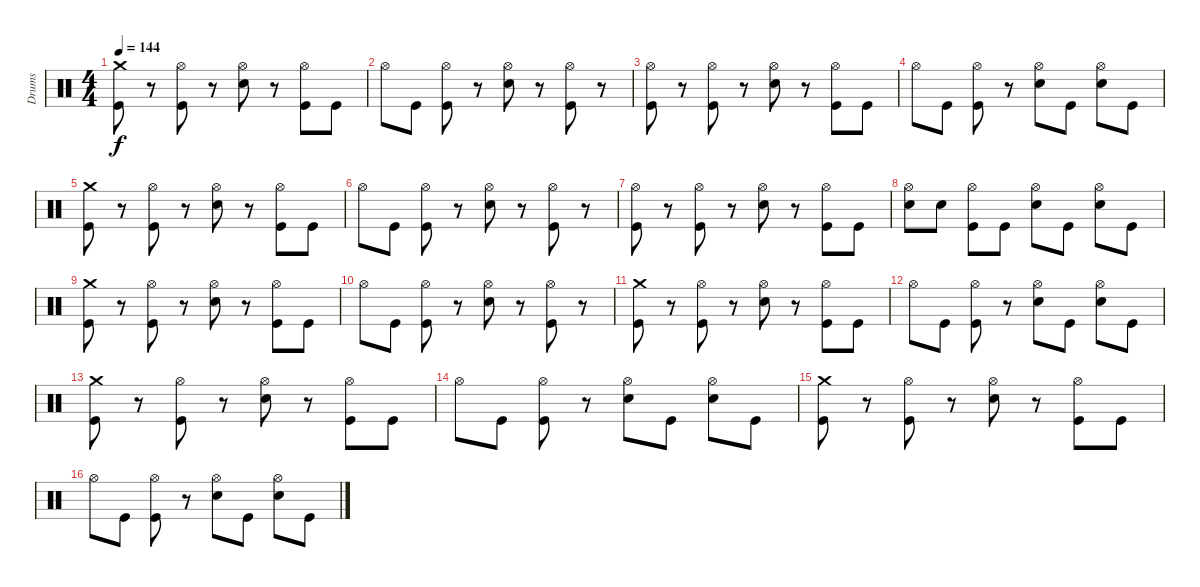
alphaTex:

\track ("Drums" "Drums") {instrument percussion}
\staff {score}
\articulation defaults
\ts (4 4)
\tempo 144
\clef neutral
\ks c
("Crash medium (hit)" "Kick (hit)").8{dy f} r.8 ("Hi-Hat (open)" "Kick (hit)").8 r.8 ("Hi-Hat (open)" "Snare (hit) 2").8 r.8 ("Hi-Hat (open)" "Kick (hit)").8 "Kick (hit)".8 |
"Hi-Hat (open)".8 "Kick (hit)".8 ("Hi-Hat (open)" "Kick (hit)").8 r.8 ("Hi-Hat (open)" "Snare (hit) 2").8 r.8 ("Hi-Hat (open)" "Kick (hit)").8 r.8 |
("Hi-Hat (open)" "Kick (hit)").8 r.8 ("Hi-Hat (open)" "Kick (hit)").8 r.8 ("Hi-Hat (open)" "Snare (hit) 2").8 r.8 ("Hi-Hat (open)" "Kick (hit)").8 "Kick (hit)".8 |
"Hi-Hat (open)".8 "Kick (hit)".8 ("Hi-Hat (open)" "Kick (hit)").8 r.8 ("Hi-Hat (open)" "Snare (hit) 2").8 "Kick (hit)".8 ("Hi-Hat (open)" "Snare (hit) 2").8 "Kick (hit)".8 |
("Crash medium (hit)" "Kick (hit)").8 r.8 ("Hi-Hat (open)" "Kick (hit)").8 r.8 ("Hi-Hat (open)" "Snare (hit) 2").8 r.8 ("Hi-Hat (open)" "Kick (hit)").8 "Kick (hit)".8 |
"Hi-Hat (open)".8 "Kick (hit)".8 ("Hi-Hat (open)" "Kick (hit)").8 r.8 ("Hi-Hat (open)" "Snare (hit) 2").8 r.8 ("Hi-Hat (open)" "Kick (hit)").8 r.8 |
("Hi-Hat (open)" "Kick (hit)").8 r.8 ("Hi-Hat (open)" "Kick (hit)").8 r.8 ("Hi-Hat (open)" "Snare (hit) 2").8 r.8 ("Hi-Hat (open)" "Kick (hit)").8 "Kick (hit)".8 |
("Hi-Hat (open)" "Snare (hit) 2").8 "Snare (hit) 2".8 ("Hi-Hat (open)" "Kick (hit)").8 "Kick (hit)".8 ("Hi-Hat (open)" "Snare (hit) 2").8 "Kick (hit)".8 ("Hi-Hat (open)" "Snare (hit) 2").8 "Kick (hit)".8 |
("Crash medium (hit)" "Kick (hit)").8 r.8 ("Hi-Hat (open)" "Kick (hit)").8 r.8 ("Hi-Hat (open)" "Snare (hit) 2").8 r.8 ("Hi-Hat (open)" "Kick (hit)").8 "Kick (hit)".8 |
"Hi-Hat (open)".8 "Kick (hit)".8 ("Hi-Hat (open)" "Kick (hit)").8 r.8 ("Hi-Hat (open)" "Snare (hit) 2").8 r.8 ("Hi-Hat (open)" "Kick (hit)").8 r.8 |
("Crash medium (hit)" "Kick (hit)").8 r.8 ("Hi-Hat (open)" "Kick (hit)").8 r.8 ("Hi-Hat (open)" "Snare (hit) 2").8 r.8 ("Hi-Hat (open)" "Kick (hit)").8 "Kick (hit)".8 |
"Hi-Hat (open)".8 "Kick (hit)".8 ("Hi-Hat (open)" "Kick (hit)").8 r.8 ("Hi-Hat (open)" "Snare (hit) 2").8 "Kick (hit)".8 ("Hi-Hat (open)" "Snare (hit) 2").8 "Kick (hit)".8 |
("Crash medium (hit)" "Kick (hit)").8 r.8 ("Hi-Hat (open)" "Kick (hit)").8 r.8 ("Hi-Hat (open)" "Snare (hit) 2").8 r.8 ("Hi-Hat (open)" "Kick (hit)").8 "Kick (hit)".8 |
"Hi-Hat (open)".8 "Kick (hit)".8 ("Hi-Hat (open)" "Kick (hit)").8 r.8 ("Hi-Hat (open)" "Snare (hit) 2").8 "Kick (hit)".8 ("Hi-Hat (open)" "Snare (hit) 2").8 "Kick (hit)".8 |
("Crash medium (hit)" "Kick (hit)").8 r.8 ("Hi-Hat (open)" "Kick (hit)").8 r.8 ("Hi-Hat (open)" "Snare (hit) 2").8 r.8 ("Hi-Hat (open)" "Kick (hit)").8 "Kick (hit)".8 |
"Hi-Hat (open)".8 "Kick (hit)".8 ("Hi-Hat (open)" "Kick (hit)").8 r.8 ("Hi-Hat (open)" "Snare (hit) 2").8 "Kick (hit)".8 ("Hi-Hat (open)" "Snare (hit) 2").8 "Kick (hit)".8
